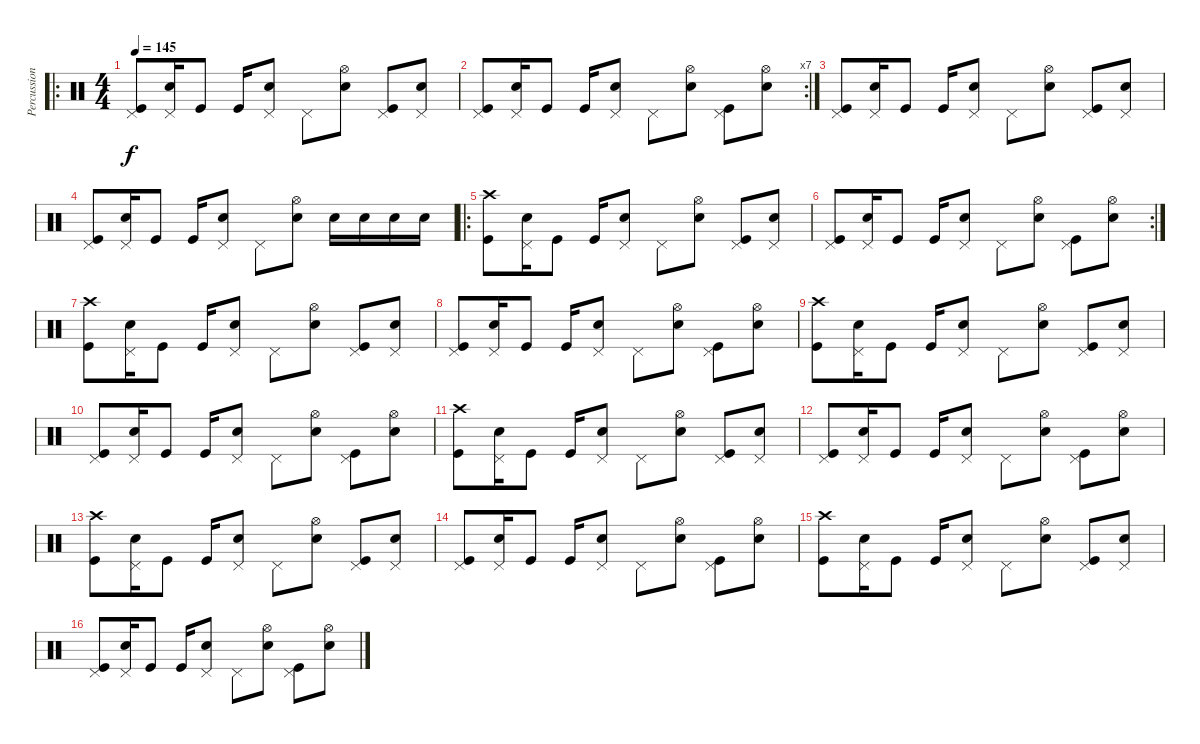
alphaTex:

\track ("Percussion" "Percussion") {instrument percussion}
\staff {score}
\articulation defaults
\ro
\ts (4 4)
\tempo 145
\clef neutral
\ks c
("Pedal Hi-Hat (hit)" "Kick (hit)").8{dy f} ("Pedal Hi-Hat (hit)" "Electric Snare (hit)").16 "Kick (hit)".8 "Kick (hit)".16 ("Pedal Hi-Hat (hit)" "Electric Snare (hit)").8 "Pedal Hi-Hat (hit)".8 ("Hi-Hat (open)" "Electric Snare (hit)").8 ("Pedal Hi-Hat (hit)" "Kick (hit)").8 ("Pedal Hi-Hat (hit)" "Electric Snare (hit)").8 |
\rc 7
("Pedal Hi-Hat (hit)" "Kick (hit)").8 ("Pedal Hi-Hat (hit)" "Electric Snare (hit)").16 "Kick (hit)".8 "Kick (hit)".16 ("Pedal Hi-Hat (hit)" "Electric Snare (hit)").8 "Pedal Hi-Hat (hit)".8 ("Hi-Hat (open)" "Electric Snare (hit)").8 ("Pedal Hi-Hat (hit)" "Kick (hit)").8 ("Hi-Hat (open)" "Electric Snare (hit)").8 |
("Pedal Hi-Hat (hit)" "Kick (hit)").8 ("Pedal Hi-Hat (hit)" "Electric Snare (hit)").16 "Kick (hit)".8 "Kick (hit)".16 ("Pedal Hi-Hat (hit)" "Electric Snare (hit)").8 "Pedal Hi-Hat (hit)".8 ("Hi-Hat (open)" "Electric Snare (hit)").8 ("Pedal Hi-Hat (hit)" "Kick (hit)").8 ("Pedal Hi-Hat (hit)" "Electric Snare (hit)").8 |
("Pedal Hi-Hat (hit)" "Kick (hit)").8 ("Pedal Hi-Hat (hit)" "Electric Snare (hit)").16 "Kick (hit)".8 "Kick (hit)".16 ("Pedal Hi-Hat (hit)" "Electric Snare (hit)").8 "Pedal Hi-Hat (hit)".8 ("Hi-Hat (open)" "Electric Snare (hit)").8 "Electric Snare (hit)".16 "Electric Snare (hit)".16 "Electric Snare (hit)".16 "Electric Snare (hit)".16 |
\ro
("Crash high (hit)" "Kick (hit)").8 ("Pedal Hi-Hat (hit)" "Electric Snare (hit)").16 "Kick (hit)".8 "Kick (hit)".16 ("Pedal Hi-Hat (hit)" "Electric Snare (hit)").8 "Pedal Hi-Hat (hit)".8 ("Hi-Hat (open)" "Electric Snare (hit)").8 ("Pedal Hi-Hat (hit)" "Kick (hit)").8 ("Pedal Hi-Hat (hit)" "Electric Snare (hit)").8 |
\rc 2
("Pedal Hi-Hat (hit)" "Kick (hit)").8 ("Pedal Hi-Hat (hit)" "Electric Snare (hit)").16 "Kick (hit)".8 "Kick (hit)".16 ("Pedal Hi-Hat (hit)" "Electric Snare (hit)").8 "Pedal Hi-Hat (hit)".8 ("Hi-Hat (open)" "Electric Snare (hit)").8 ("Pedal Hi-Hat (hit)" "Kick (hit)").8 ("Hi-Hat (open)" "Electric Snare (hit)").8 |
("Crash high (hit)" "Kick (hit)").8 ("Pedal Hi-Hat (hit)" "Electric Snare (hit)").16 "Kick (hit)".8 "Kick (hit)".16 ("Pedal Hi-Hat (hit)" "Electric Snare (hit)").8 "Pedal Hi-Hat (hit)".8 ("Hi-Hat (open)" "Electric Snare (hit)").8 ("Pedal Hi-Hat (hit)" "Kick (hit)").8 ("Pedal Hi-Hat (hit)" "Electric Snare (hit)").8 |
("Pedal Hi-Hat (hit)" "Kick (hit)").8 ("Pedal Hi-Hat (hit)" "Electric Snare (hit)").16 "Kick (hit)".8 "Kick (hit)".16 ("Pedal Hi-Hat (hit)" "Electric Snare (hit)").8 "Pedal Hi-Hat (hit)".8 ("Hi-Hat (open)" "Electric Snare (hit)").8 ("Pedal Hi-Hat (hit)" "Kick (hit)").8 ("Hi-Hat (open)" "Electric Snare (hit)").8 |
("Crash high (hit)" "Kick (hit)").8 ("Pedal Hi-Hat (hit)" "Electric Snare (hit)").16 "Kick (hit)".8 "Kick (hit)".16 ("Pedal Hi-Hat (hit)" "Electric Snare (hit)").8 "Pedal Hi-Hat (hit)".8 ("Hi-Hat (open)" "Electric Snare (hit)").8 ("Pedal Hi-Hat (hit)" "Kick (hit)").8 ("Pedal Hi-Hat (hit)" "Electric Snare (hit)").8 |
("Pedal Hi-Hat (hit)" "Kick (hit)").8 ("Pedal Hi-Hat (hit)" "Electric Snare (hit)").16 "Kick (hit)".8 "Kick (hit)".16 ("Pedal Hi-Hat (hit)" "Electric Snare (hit)").8 "Pedal Hi-Hat (hit)".8 ("Hi-Hat (open)" "Electric Snare (hit)").8 ("Pedal Hi-Hat (hit)" "Kick (hit)").8 ("Hi-Hat (open)" "Electric Snare (hit)").8 |
("Crash high (hit)" "Kick (hit)").8 ("Pedal Hi-Hat (hit)" "Electric Snare (hit)").16 "Kick (hit)".8 "Kick (hit)".16 ("Pedal Hi-Hat (hit)" "Electric Snare (hit)").8 "Pedal Hi-Hat (hit)".8 ("Hi-Hat (open)" "Electric Snare (hit)").8 ("Pedal Hi-Hat (hit)" "Kick (hit)").8 ("Pedal Hi-Hat (hit)" "Electric Snare (hit)").8 |
("Pedal Hi-Hat (hit)" "Kick (hit)").8 ("Pedal Hi-Hat (hit)" "Electric Snare (hit)").16 "Kick (hit)".8 "Kick (hit)".16 ("Pedal Hi-Hat (hit)" "Electric Snare (hit)").8 "Pedal Hi-Hat (hit)".8 ("Hi-Hat (open)" "Electric Snare (hit)").8 ("Pedal Hi-Hat (hit)" "Kick (hit)").8 ("Hi-Hat (open)" "Electric Snare (hit)").8 |
("Crash high (hit)" "Kick (hit)").8 ("Pedal Hi-Hat (hit)" "Electric Snare (hit)").16 "Kick (hit)".8 "Kick (hit)".16 ("Pedal Hi-Hat (hit)" "Electric Snare (hit)").8 "Pedal Hi-Hat (hit)".8 ("Hi-Hat (open)" "Electric Snare (hit)").8 ("Pedal Hi-Hat (hit)" "Kick (hit)").8 ("Pedal Hi-Hat (hit)" "Electric Snare (hit)").8 |
("Pedal Hi-Hat (hit)" "Kick (hit)").8 ("Pedal Hi-Hat (hit)" "Electric Snare (hit)").16 "Kick (hit)".8 "Kick (hit)".16 ("Pedal Hi-Hat (hit)" "Electric Snare (hit)").8 "Pedal Hi-Hat (hit)".8 ("Hi-Hat (open)" "Electric Snare (hit)").8 ("Pedal Hi-Hat (hit)" "Kick (hit)").8 ("Hi-Hat (open)" "Electric Snare (hit)").8 |
("Crash high (hit)" "Kick (hit)").8 ("Pedal Hi-Hat (hit)" "Electric Snare (hit)").16 "Kick (hit)".8 "Kick (hit)".16 ("Pedal Hi-Hat (hit)" "Electric Snare (hit)").8 "Pedal Hi-Hat (hit)".8 ("Hi-Hat (open)" "Electric Snare (hit)").8 ("Pedal Hi-Hat (hit)" "Kick (hit)").8 ("Pedal Hi-Hat (hit)" "Electric Snare (hit)").8 |
("Pedal Hi-Hat (hit)" "Kick (hit)").8 ("Pedal Hi-Hat (hit)" "Electric Snare (hit)").16 "Kick (hit)".8 "Kick (hit)".16 ("Pedal Hi-Hat (hit)" "Electric Snare (hit)").8 "Pedal Hi-Hat (hit)".8 ("Hi-Hat (open)" "Electric Snare (hit)").8 ("Pedal Hi-Hat (hit)" "Kick (hit)").8 ("Hi-Hat (open)" "Electric Snare (hit)").8
